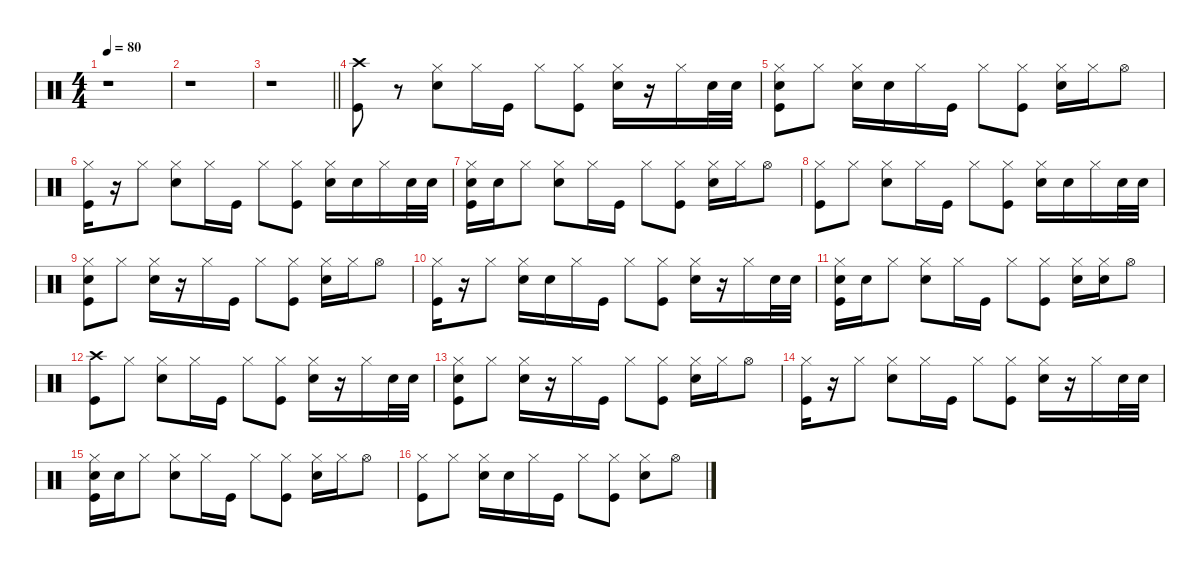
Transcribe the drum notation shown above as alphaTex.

\defaultSystemsLayout 4
\hideDynamics
\bracketExtendMode nobrackets
\singleTrackTrackNamePolicy hidden
\multiTrackTrackNamePolicy hidden
\firstSystemTrackNameMode fullname
\firstSystemTrackNameOrientation horizontal
\otherSystemsTrackNameOrientation horizontal
\track ("Percussion" "drm.") {defaultSystemsLayout 4 instrument percussion}
\staff {score}
\articulation defaults
\ts (4 4)
\tempo 80
\clef neutral
\ks c
r.1{dy f beam Down} |
r.1{beam Down} |
\barLineRight lightlight
r.1{beam Down} |
("Crash high (hit)" "Kick (hit)").8{beam Down} r.8{beam Down} ("Hi-Hat (closed)" "Snare (hit) 2").8{beam Down} "Hi-Hat (closed)".16{beam Down} "Kick (hit)".16{beam Down} "Hi-Hat (closed)".8{beam Down} ("Hi-Hat (closed)" "Kick (hit)").8{beam Down} ("Hi-Hat (closed)" "Snare (hit) 2").16{beam Down} r.16{beam Down} "Hi-Hat (closed)".16{beam Down} "Snare (hit) 2".32{dy p beam Down} "Snare (hit) 2".32{beam Down} |
("Hi-Hat (closed)" "Snare (hit) 2" "Kick (hit)").8{dy f beam Down} "Hi-Hat (closed)".8{beam Down} ("Hi-Hat (closed)" "Snare (hit) 2").16{beam Down} "Snare (hit) 2".16{dy pp beam Down} "Hi-Hat (closed)".16{dy f beam Down} "Kick (hit)".16{beam Down} "Hi-Hat (closed)".8{beam Down} ("Hi-Hat (closed)" "Kick (hit)").8{beam Down} ("Hi-Hat (closed)" "Snare (hit) 2").16{beam Down} "Hi-Hat (closed)".16{dy mp beam Down} "Hi-Hat (open)".8{dy f beam Down} |
("Hi-Hat (closed)" "Kick (hit)").16{beam Down} r.16{beam Down} "Hi-Hat (closed)".8{beam Down} ("Hi-Hat (closed)" "Snare (hit) 2").8{beam Down} "Hi-Hat (closed)".16{beam Down} "Kick (hit)".16{beam Down} "Hi-Hat (closed)".8{beam Down} ("Hi-Hat (closed)" "Kick (hit)").8{beam Down} ("Hi-Hat (closed)" "Snare (hit) 2").16{beam Down} "Snare (hit) 2".16{dy pp beam Down} "Hi-Hat (closed)".16{dy f beam Down} "Snare (hit) 2".32{dy p beam Down} "Snare (hit) 2".32{beam Down} |
("Hi-Hat (closed)" "Snare (hit) 2" "Kick (hit)").16{dy f beam Down} "Snare (hit) 2".16{dy pp beam Down} "Hi-Hat (closed)".8{dy f beam Down} ("Hi-Hat (closed)" "Snare (hit) 2").8{beam Down} "Hi-Hat (closed)".16{beam Down} "Kick (hit)".16{beam Down} "Hi-Hat (closed)".8{beam Down} ("Hi-Hat (closed)" "Kick (hit)").8{beam Down} ("Hi-Hat (closed)" "Snare (hit) 2").16{beam Down} "Hi-Hat (closed)".16{dy mp beam Down} "Hi-Hat (open)".8{dy f beam Down} |
("Hi-Hat (closed)" "Kick (hit)").8{beam Down} "Hi-Hat (closed)".8{dy mp beam Down} ("Hi-Hat (closed)" "Snare (hit) 2").8{dy f beam Down} "Hi-Hat (closed)".16{beam Down} "Kick (hit)".16{beam Down} "Hi-Hat (closed)".8{beam Down} ("Hi-Hat (closed)" "Kick (hit)").8{beam Down} ("Hi-Hat (closed)" "Snare (hit) 2").16{beam Down} "Snare (hit) 2".16{dy p beam Down} "Hi-Hat (closed)".16{dy f beam Down} "Snare (hit) 2".32{dy p beam Down} "Snare (hit) 2".32{beam Down} |
("Hi-Hat (closed)" "Snare (hit) 2" "Kick (hit)").8{dy f beam Down} "Hi-Hat (closed)".8{beam Down} ("Hi-Hat (closed)" "Snare (hit) 2").16{beam Down} r.16{beam Down} "Hi-Hat (closed)".16{beam Down} "Kick (hit)".16{beam Down} "Hi-Hat (closed)".8{beam Down} ("Hi-Hat (closed)" "Kick (hit)").8{beam Down} ("Hi-Hat (closed)" "Snare (hit) 2").16{beam Down} "Hi-Hat (closed)".16{dy mp beam Down} "Hi-Hat (open)".8{dy f beam Down} |
("Hi-Hat (closed)" "Kick (hit)").16{beam Down} r.16{beam Down} "Hi-Hat (closed)".8{beam Down} ("Hi-Hat (closed)" "Snare (hit) 2").16{beam Down} "Snare (hit) 2".16{dy p beam Down} "Hi-Hat (closed)".16{dy f beam Down} "Kick (hit)".16{beam Down} "Hi-Hat (closed)".8{beam Down} ("Hi-Hat (closed)" "Kick (hit)").8{beam Down} ("Hi-Hat (closed)" "Snare (hit) 2").16{beam Down} r.16{beam Down} "Hi-Hat (closed)".16{beam Down} "Snare (hit) 2".32{dy p beam Down} "Snare (hit) 2".32{beam Down} |
("Hi-Hat (closed)" "Snare (hit) 2" "Kick (hit)").16{dy f beam Down} "Snare (hit) 2".16{dy pp beam Down} "Hi-Hat (closed)".8{dy f beam Down} ("Hi-Hat (closed)" "Snare (hit) 2").8{beam Down} "Hi-Hat (closed)".16{beam Down} "Kick (hit)".16{beam Down} "Hi-Hat (closed)".8{beam Down} ("Hi-Hat (closed)" "Kick (hit)").8{beam Down} ("Hi-Hat (closed)" "Snare (hit) 2").16{beam Down} ("Hi-Hat (closed)" "Snare (hit) 2").16{dy mp beam Down} "Hi-Hat (open)".8{dy f beam Down} |
("Crash high (hit)" "Kick (hit)").8{beam Down} "Hi-Hat (closed)".8{dy mp beam Down} ("Hi-Hat (closed)" "Snare (hit) 2").8{dy f beam Down} "Hi-Hat (closed)".16{beam Down} "Kick (hit)".16{beam Down} "Hi-Hat (closed)".8{beam Down} ("Hi-Hat (closed)" "Kick (hit)").8{beam Down} ("Hi-Hat (closed)" "Snare (hit) 2").16{beam Down} r.16{beam Down} "Hi-Hat (closed)".16{beam Down} "Snare (hit) 2".32{dy p beam Down} "Snare (hit) 2".32{beam Down} |
("Hi-Hat (closed)" "Snare (hit) 2" "Kick (hit)").8{dy f beam Down} "Hi-Hat (closed)".8{beam Down} ("Hi-Hat (closed)" "Snare (hit) 2").16{beam Down} r.16{beam Down} "Hi-Hat (closed)".16{beam Down} "Kick (hit)".16{beam Down} "Hi-Hat (closed)".8{beam Down} ("Hi-Hat (closed)" "Kick (hit)").8{beam Down} ("Hi-Hat (closed)" "Snare (hit) 2").16{beam Down} "Hi-Hat (closed)".16{dy mp beam Down} "Hi-Hat (open)".8{dy f beam Down} |
("Hi-Hat (closed)" "Kick (hit)").16{beam Down} r.16{beam Down} "Hi-Hat (closed)".8{beam Down} ("Hi-Hat (closed)" "Snare (hit) 2").8{beam Down} "Hi-Hat (closed)".16{beam Down} "Kick (hit)".16{beam Down} "Hi-Hat (closed)".8{beam Down} ("Hi-Hat (closed)" "Kick (hit)").8{beam Down} ("Hi-Hat (closed)" "Snare (hit) 2").16{beam Down} r.16{beam Down} "Hi-Hat (closed)".16{beam Down} "Snare (hit) 2".32{dy p beam Down} "Snare (hit) 2".32{beam Down} |
("Hi-Hat (closed)" "Snare (hit) 2" "Kick (hit)").16{dy f beam Down} "Snare (hit) 2".16{dy pp beam Down} "Hi-Hat (closed)".8{dy f beam Down} ("Hi-Hat (closed)" "Snare (hit) 2").8{beam Down} "Hi-Hat (closed)".16{beam Down} "Kick (hit)".16{beam Down} "Hi-Hat (closed)".8{beam Down} ("Hi-Hat (closed)" "Kick (hit)").8{beam Down} ("Hi-Hat (closed)" "Snare (hit) 2").16{beam Down} "Hi-Hat (closed)".16{dy mp beam Down} "Hi-Hat (open)".8{dy f beam Down} |
("Hi-Hat (closed)" "Kick (hit)").8{beam Down} "Hi-Hat (closed)".8{beam Down} ("Hi-Hat (closed)" "Snare (hit) 2").16{beam Down} "Snare (hit) 2".16{dy p beam Down} "Hi-Hat (closed)".16{dy f beam Down} "Kick (hit)".16{beam Down} "Hi-Hat (closed)".8{beam Down} ("Hi-Hat (closed)" "Kick (hit)").8{beam Down} ("Hi-Hat (closed)" "Snare (hit) 2").8{beam Down} "Hi-Hat (open)".8{beam Down}
